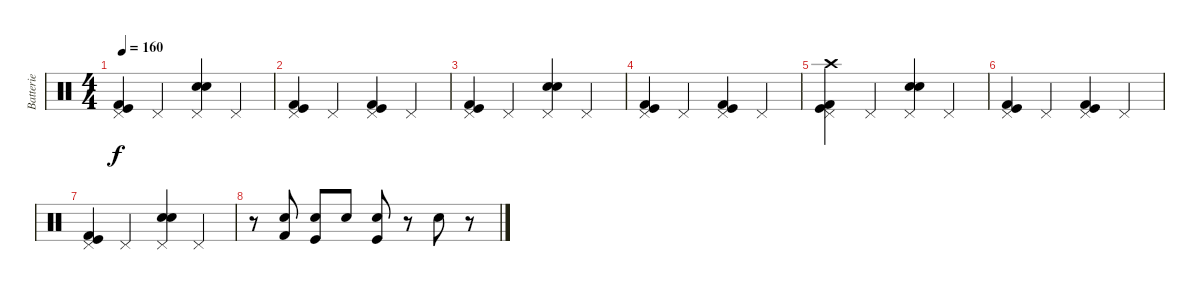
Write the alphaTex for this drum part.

\track ("Batterie" "Batterie") {instrument percussion}
\staff {score}
\articulation defaults
\ts (4 4)
\tempo 160
\clef neutral
\ks c
("Pedal Hi-Hat (hit)" "Kick (hit)" "Kick (hit) 2").4{dy f} "Pedal Hi-Hat (hit)".4 ("Pedal Hi-Hat (hit)" "Electric Snare (hit)" "Electric Snare (hit)").4 "Pedal Hi-Hat (hit)".4 |
("Pedal Hi-Hat (hit)" "Kick (hit)" "Kick (hit) 2").4 "Pedal Hi-Hat (hit)".4 ("Pedal Hi-Hat (hit)" "Kick (hit)" "Kick (hit) 2").4 "Pedal Hi-Hat (hit)".4 |
("Pedal Hi-Hat (hit)" "Kick (hit)" "Kick (hit) 2").4 "Pedal Hi-Hat (hit)".4 ("Pedal Hi-Hat (hit)" "Electric Snare (hit)" "Electric Snare (hit)").4 "Pedal Hi-Hat (hit)".4 |
("Pedal Hi-Hat (hit)" "Kick (hit)" "Kick (hit) 2").4 "Pedal Hi-Hat (hit)".4 ("Pedal Hi-Hat (hit)" "Kick (hit)" "Kick (hit) 2").4 "Pedal Hi-Hat (hit)".4 |
("Crash high (hit)" "Pedal Hi-Hat (hit)" "Kick (hit)" "Kick (hit) 2").4 "Pedal Hi-Hat (hit)".4 ("Pedal Hi-Hat (hit)" "Electric Snare (hit)" "Electric Snare (hit)").4 "Pedal Hi-Hat (hit)".4 |
("Pedal Hi-Hat (hit)" "Kick (hit)" "Kick (hit) 2").4 "Pedal Hi-Hat (hit)".4 ("Pedal Hi-Hat (hit)" "Kick (hit)" "Kick (hit) 2").4 "Pedal Hi-Hat (hit)".4 |
("Pedal Hi-Hat (hit)" "Kick (hit)" "Kick (hit) 2").4 "Pedal Hi-Hat (hit)".4 ("Pedal Hi-Hat (hit)" "Electric Snare (hit)" "Electric Snare (hit)").4 "Pedal Hi-Hat (hit)".4 |
r.8 ("Electric Snare (hit)" "Kick (hit) 2").8 ("Electric Snare (hit)" "Kick (hit)").8 "Snare (hit) 2".8 ("Snare (hit) 2" "Kick (hit)").8 r.8 "Electric Snare (hit)".8 r.8
